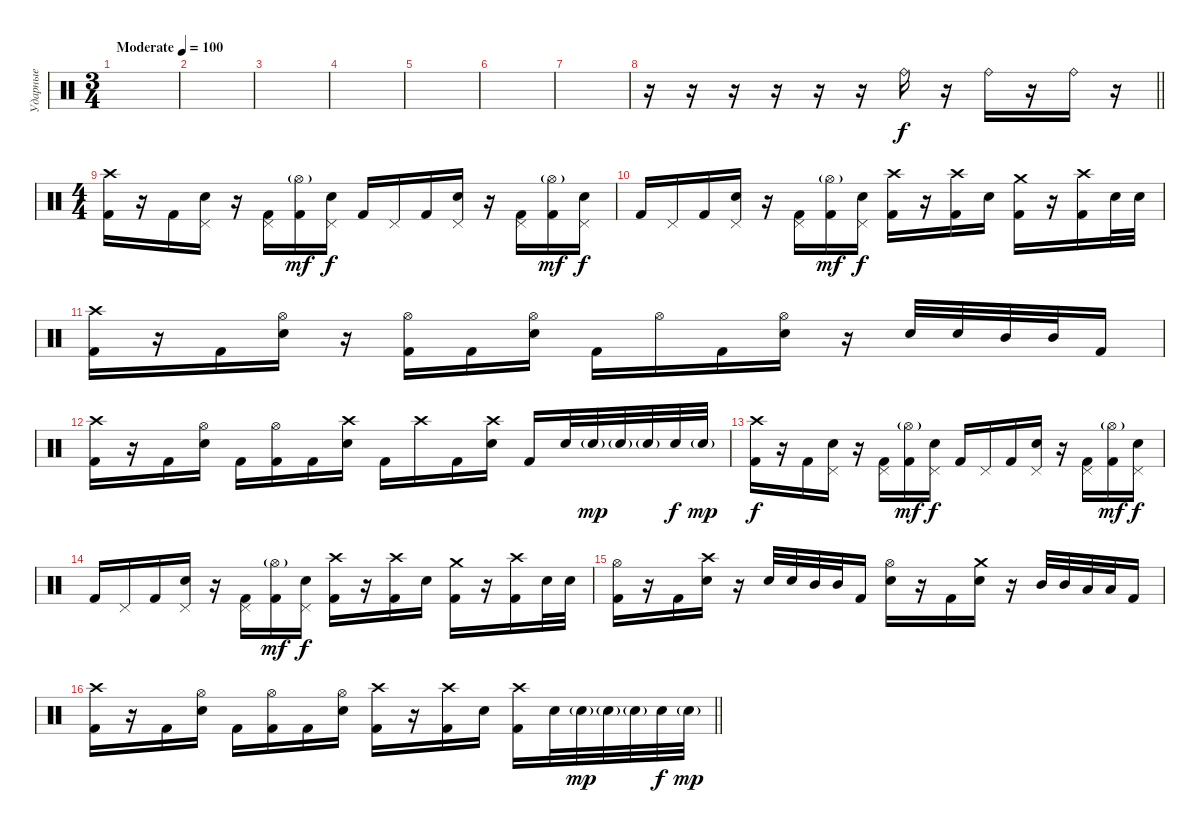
\track ("Ударные" "Ударные") {instrument percussion}
\staff {score}
\articulation defaults
\ts (3 4)
\section ("" "")
\tempo (100 "Moderate")
\clef neutral
\ks c
|
|
|
|
|
|
|
\barLineRight lightlight
r.16 r.16 r.16 r.16 r.16 r.16 "Ride (bell)".16 r.16 "Ride (bell)".16 r.16 "Ride (bell)".16 r.16 |
\ts (4 4)
\section ("" "")
("Crash high (hit)" "Kick (hit) 2").16 r.16 "Kick (hit) 2".16 ("Pedal Hi-Hat (hit)" "Electric Snare (hit)").16 r.16 ("Pedal Hi-Hat (hit)" "Kick (hit) 2").16 ("Hi-Hat (open)"{g} "Kick (hit) 2").16{dy mf} ("Pedal Hi-Hat (hit)" "Electric Snare (hit)").16{dy f} "Kick (hit) 2".16 "Pedal Hi-Hat (hit)".16 "Kick (hit) 2".16 ("Pedal Hi-Hat (hit)" "Electric Snare (hit)").16 r.16 ("Pedal Hi-Hat (hit)" "Kick (hit) 2").16 ("Hi-Hat (open)"{g} "Kick (hit) 2").16{dy mf} ("Pedal Hi-Hat (hit)" "Electric Snare (hit)").16{dy f} |
"Kick (hit) 2".16 "Pedal Hi-Hat (hit)".16 "Kick (hit) 2".16 ("Pedal Hi-Hat (hit)" "Electric Snare (hit)").16 r.16 ("Pedal Hi-Hat (hit)" "Kick (hit) 2").16 ("Hi-Hat (open)"{g} "Kick (hit) 2").16{dy mf} ("Pedal Hi-Hat (hit)" "Electric Snare (hit)").16{dy f} ("Crash high (hit)" "Kick (hit) 2").16 r.16 ("Crash high (hit)" "Kick (hit) 2").16 "Electric Snare (hit)".16 ("Crash medium (hit)" "Kick (hit) 2").16 r.16 ("Crash high (hit)" "Kick (hit) 2").16 "Electric Snare (hit)".32 "Electric Snare (hit)".32 |
("Crash high (hit)" "Kick (hit) 2").16 r.16 "Kick (hit) 2".16 ("Hi-Hat (open)" "Electric Snare (hit)").16 r.16 ("Hi-Hat (open)" "Kick (hit) 2").16 "Kick (hit) 2".16 ("Hi-Hat (open)" "Electric Snare (hit)").16 "Kick (hit) 2".16 "Hi-Hat (open)".16 "Kick (hit) 2".16 ("Hi-Hat (open)" "Electric Snare (hit)").16 r.16 "Electric Snare (hit)".32 "Electric Snare (hit)".32 "Mid Tom (hit)".32 "Mid Tom (hit)".32 "Kick (hit) 2".16 |
("Crash high (hit)" "Kick (hit) 2").16 r.16 "Kick (hit) 2".16 ("Hi-Hat (open)" "Electric Snare (hit)").16 "Kick (hit) 2".16 ("Hi-Hat (open)" "Kick (hit) 2").16 "Kick (hit) 2".16 ("Crash high (hit)" "Electric Snare (hit)").16 "Kick (hit) 2".16 "Crash high (hit)".16 "Kick (hit) 2".16 ("Crash high (hit)" "Electric Snare (hit)").16 "Kick (hit) 2".16 "Electric Snare (hit)".32 "Electric Snare (hit)"{g}.32{dy mp} "Electric Snare (hit)"{g}.32 "Electric Snare (hit)"{g}.32 "Electric Snare (hit)".32{dy f} "Electric Snare (hit)"{g}.32{dy mp} |
("Crash high (hit)" "Kick (hit) 2").16{dy f} r.16 "Kick (hit) 2".16 ("Pedal Hi-Hat (hit)" "Electric Snare (hit)").16 r.16 ("Pedal Hi-Hat (hit)" "Kick (hit) 2").16 ("Hi-Hat (open)"{g} "Kick (hit) 2").16{dy mf} ("Pedal Hi-Hat (hit)" "Electric Snare (hit)").16{dy f} "Kick (hit) 2".16 "Pedal Hi-Hat (hit)".16 "Kick (hit) 2".16 ("Pedal Hi-Hat (hit)" "Electric Snare (hit)").16 r.16 ("Pedal Hi-Hat (hit)" "Kick (hit) 2").16 ("Hi-Hat (open)"{g} "Kick (hit) 2").16{dy mf} ("Pedal Hi-Hat (hit)" "Electric Snare (hit)").16{dy f} |
"Kick (hit) 2".16 "Pedal Hi-Hat (hit)".16 "Kick (hit) 2".16 ("Pedal Hi-Hat (hit)" "Electric Snare (hit)").16 r.16 ("Pedal Hi-Hat (hit)" "Kick (hit) 2").16 ("Hi-Hat (open)"{g} "Kick (hit) 2").16{dy mf} ("Pedal Hi-Hat (hit)" "Electric Snare (hit)").16{dy f} ("Crash high (hit)" "Kick (hit) 2").16 r.16 ("Crash high (hit)" "Kick (hit) 2").16 "Electric Snare (hit)".16 ("Crash medium (hit)" "Kick (hit) 2").16 r.16 ("Crash high (hit)" "Kick (hit) 2").16 "Electric Snare (hit)".32 "Electric Snare (hit)".32 |
("Hi-Hat (open)" "Kick (hit) 2").16 r.16 "Kick (hit) 2".16 ("Crash high (hit)" "Electric Snare (hit)").16 r.16 "Electric Snare (hit)".32 "Electric Snare (hit)".32 "Mid Tom (hit)".32 "Mid Tom (hit)".32 "Kick (hit) 2".16 ("Hi-Hat (open)" "Electric Snare (hit)").16 r.16 "Kick (hit) 2".16 ("Crash medium (hit)" "Electric Snare (hit)").16 r.16 "Mid Tom (hit)".32 "Mid Tom (hit)".32 "Low Floor Tom (hit)".32 "Low Floor Tom (hit)".32 "Kick (hit) 2".16 |
\barLineRight lightlight
("Crash high (hit)" "Kick (hit) 2").16 r.16 "Kick (hit) 2".16 ("Hi-Hat (open)" "Electric Snare (hit)").16 "Kick (hit) 2".16 ("Hi-Hat (open)" "Kick (hit) 2").16 "Kick (hit) 2".16 ("Hi-Hat (open)" "Electric Snare (hit)").16 ("Crash high (hit)" "Kick (hit) 2").16 r.16 ("Crash high (hit)" "Kick (hit) 2").16 "Electric Snare (hit)".16 ("Crash high (hit)" "Kick (hit) 2").16 "Electric Snare (hit)".32 "Electric Snare (hit)"{g}.32{dy mp} "Electric Snare (hit)"{g}.32 "Electric Snare (hit)"{g}.32 "Electric Snare (hit)".32{dy f} "Electric Snare (hit)"{g}.32{dy mp}
